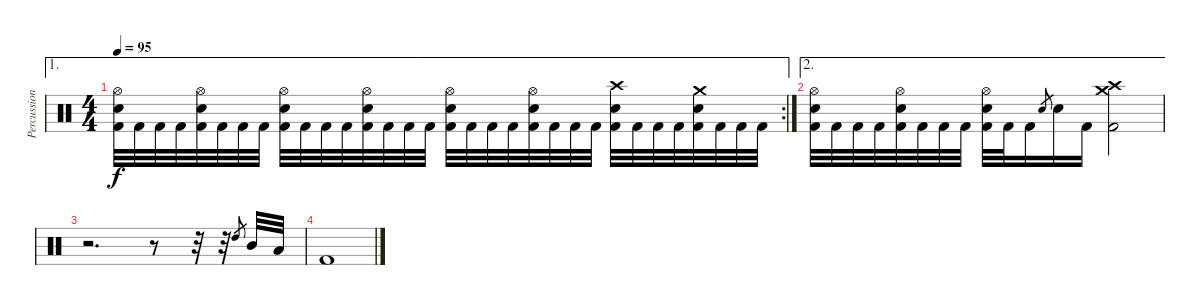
\track ("Percussion" "Percussion") {instrument percussion}
\staff {score}
\articulation defaults
\ae 1
\rc 2
\ts (4 4)
\tempo 95
\clef neutral
\ks c
("Kick (hit) 2" "Snare (hit) 2" "Hi-Hat (open)").32{dy f} "Kick (hit) 2".32 "Kick (hit) 2".32 "Kick (hit) 2".32 ("Kick (hit) 2" "Snare (hit) 2" "Hi-Hat (open)").32 "Kick (hit) 2".32 "Kick (hit) 2".32 "Kick (hit) 2".32 ("Kick (hit) 2" "Snare (hit) 2" "Hi-Hat (open)").32 "Kick (hit) 2".32 "Kick (hit) 2".32 "Kick (hit) 2".32 ("Kick (hit) 2" "Snare (hit) 2" "Hi-Hat (open)").32 "Kick (hit) 2".32 "Kick (hit) 2".32 "Kick (hit) 2".32 ("Kick (hit) 2" "Snare (hit) 2" "Hi-Hat (open)").32 "Kick (hit) 2".32 "Kick (hit) 2".32 "Kick (hit) 2".32 ("Kick (hit) 2" "Snare (hit) 2" "Hi-Hat (open)").32 "Kick (hit) 2".32 "Kick (hit) 2".32 "Kick (hit) 2".32 ("Kick (hit) 2" "Crash high (hit)" "Snare (hit) 2").32 "Kick (hit) 2".32 "Kick (hit) 2".32 "Kick (hit) 2".32 ("Kick (hit) 2" "Crash medium (hit)" "Snare (hit) 2").32 "Kick (hit) 2".32 "Kick (hit) 2".32 "Kick (hit) 2".32 |
\ae 2
("Kick (hit) 2" "Snare (hit) 2" "Hi-Hat (open)").32 "Kick (hit) 2".32 "Kick (hit) 2".32 "Kick (hit) 2".32 ("Kick (hit) 2" "Snare (hit) 2" "Hi-Hat (open)").32 "Kick (hit) 2".32 "Kick (hit) 2".32 "Kick (hit) 2".32 ("Kick (hit) 2" "Snare (hit) 2" "Hi-Hat (open)").32 "Kick (hit) 2".32 "Kick (hit) 2".16 "Snare (hit) 2".8{gr} "Snare (hit) 2".16 "Kick (hit) 2".16 ("Kick (hit) 2" "Crash high (hit)" "Crash medium (hit)").2 |
r.2{d} r.8 r.32 r.32 "High Tom (hit)".8{gr} "Mid Tom (hit)".32 "Low Tom (hit)".32 |
"Kick (hit) 2".1
